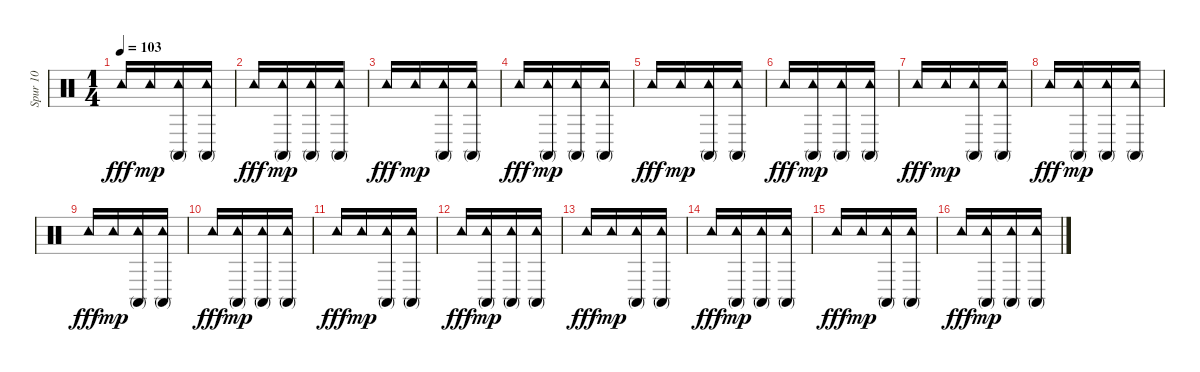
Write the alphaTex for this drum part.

\track ("Spur 10" "Spur 10") {instrument percussion}
\staff {score}
\articulation defaults
\ts (1 4)
\tempo 103
\clef neutral
\ks c "Tambourine (hit)".16{dy fff} "Tambourine (hit)".16{dy mp}
("Tambourine (hit)" "Conga high (mute)").16 ("Conga high (mute)" "Tambourine (hit)").16 |
"Tambourine (hit)".16{dy fff} ("Tambourine (hit)" "Conga high (mute)").16{dy mp} ("Tambourine (hit)" "Conga high (mute)").16 ("Tambourine (hit)" "Conga high (mute)").16 |
"Tambourine (hit)".16{dy fff} "Tambourine (hit)".16{dy mp} ("Tambourine (hit)" "Conga high (mute)").16 ("Tambourine (hit)" "Conga high (mute)").16 |
"Tambourine (hit)".16{dy fff} ("Tambourine (hit)" "Conga high (mute)").16{dy mp} ("Tambourine (hit)" "Conga high (mute)").16 ("Tambourine (hit)" "Conga high (mute)").16 |
"Tambourine (hit)".16{dy fff} "Tambourine (hit)".16{dy mp} ("Tambourine (hit)" "Conga high (mute)").16 ("Conga high (mute)" "Tambourine (hit)").16 |
"Tambourine (hit)".16{dy fff} ("Tambourine (hit)" "Conga high (mute)").16{dy mp} ("Tambourine (hit)" "Conga high (mute)").16 ("Tambourine (hit)" "Conga high (mute)").16 |
"Tambourine (hit)".16{dy fff} "Tambourine (hit)".16{dy mp} ("Tambourine (hit)" "Conga high (mute)").16 ("Tambourine (hit)" "Conga high (mute)").16 |
"Tambourine (hit)".16{dy fff} ("Tambourine (hit)" "Conga high (mute)").16{dy mp} ("Tambourine (hit)" "Conga high (mute)").16 ("Tambourine (hit)" "Conga high (mute)").16 |
"Tambourine (hit)".16{dy fff} "Tambourine (hit)".16{dy mp} ("Tambourine (hit)" "Conga high (mute)").16 ("Conga high (mute)" "Tambourine (hit)").16 |
"Tambourine (hit)".16{dy fff} ("Tambourine (hit)" "Conga high (mute)").16{dy mp} ("Tambourine (hit)" "Conga high (mute)").16 ("Tambourine (hit)" "Conga high (mute)").16 |
"Tambourine (hit)".16{dy fff} "Tambourine (hit)".16{dy mp} ("Tambourine (hit)" "Conga high (mute)").16 ("Tambourine (hit)" "Conga high (mute)").16 |
"Tambourine (hit)".16{dy fff} ("Tambourine (hit)" "Conga high (mute)").16{dy mp} ("Tambourine (hit)" "Conga high (mute)").16 ("Tambourine (hit)" "Conga high (mute)").16 |
"Tambourine (hit)".16{dy fff} "Tambourine (hit)".16{dy mp} ("Tambourine (hit)" "Conga high (mute)").16 ("Conga high (mute)" "Tambourine (hit)").16 |
"Tambourine (hit)".16{dy fff} ("Tambourine (hit)" "Conga high (mute)").16{dy mp} ("Tambourine (hit)" "Conga high (mute)").16 ("Tambourine (hit)" "Conga high (mute)").16 |
"Tambourine (hit)".16{dy fff} "Tambourine (hit)".16{dy mp} ("Tambourine (hit)" "Conga high (mute)").16 ("Tambourine (hit)" "Conga high (mute)").16 |
"Tambourine (hit)".16{dy fff} ("Tambourine (hit)" "Conga high (mute)").16{dy mp} ("Tambourine (hit)" "Conga high (mute)").16 ("Tambourine (hit)" "Conga high (mute)").16
